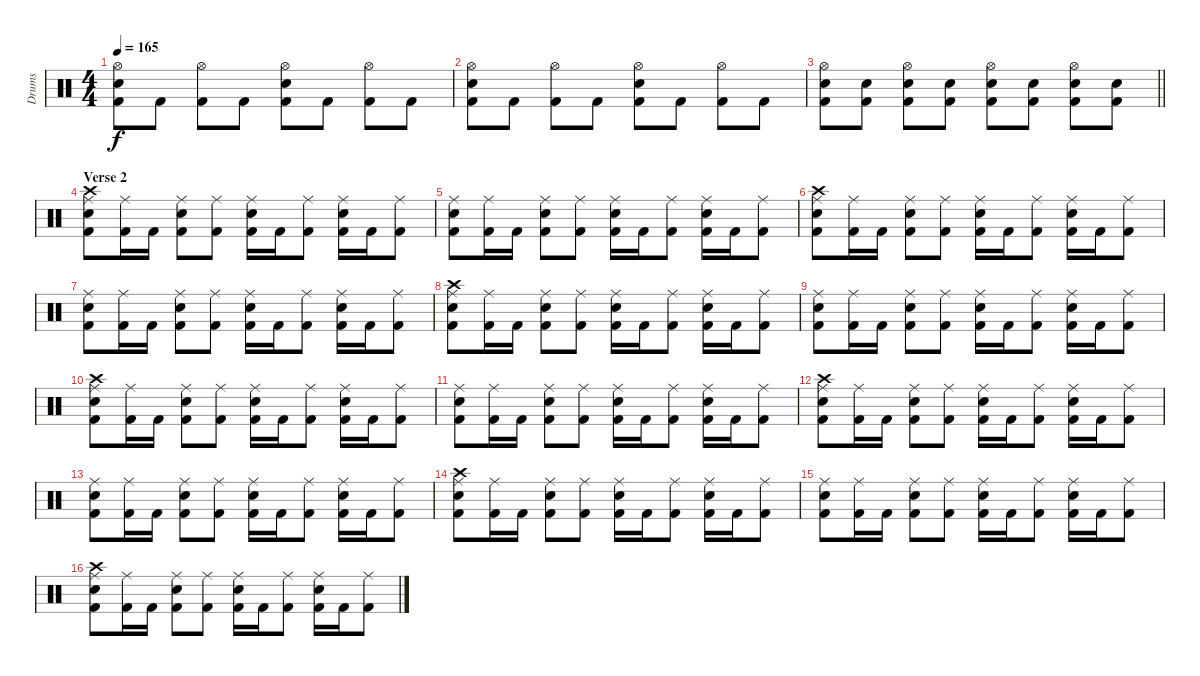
\track ("Drums" "Drums") {instrument percussion}
\staff {score}
\articulation defaults
\ts (4 4)
\tempo 165
\clef neutral
\ks c
("Hi-Hat (open)" "Snare (hit) 2" "Kick (hit) 2").8{dy f} "Kick (hit) 2".8 ("Hi-Hat (open)" "Kick (hit) 2").8 "Kick (hit) 2".8 ("Hi-Hat (open)" "Snare (hit) 2" "Kick (hit) 2").8 "Kick (hit) 2".8 ("Hi-Hat (open)" "Kick (hit) 2").8 "Kick (hit) 2".8 |
("Hi-Hat (open)" "Snare (hit) 2" "Kick (hit) 2").8 "Kick (hit) 2".8 ("Hi-Hat (open)" "Kick (hit) 2").8 "Kick (hit) 2".8 ("Hi-Hat (open)" "Snare (hit) 2" "Kick (hit) 2").8 "Kick (hit) 2".8 ("Hi-Hat (open)" "Kick (hit) 2").8 "Kick (hit) 2".8 |
\barLineRight lightlight
("Hi-Hat (open)" "Snare (hit) 2" "Kick (hit) 2").8 ("Snare (hit) 2" "Kick (hit) 2").8 ("Hi-Hat (open)" "Snare (hit) 2" "Kick (hit) 2").8 ("Snare (hit) 2" "Kick (hit) 2").8 ("Hi-Hat (open)" "Snare (hit) 2" "Kick (hit) 2").8 ("Snare (hit) 2" "Kick (hit) 2").8 ("Hi-Hat (open)" "Snare (hit) 2" "Kick (hit) 2").8 ("Snare (hit) 2" "Kick (hit) 2").8 |
\section ("" "Verse 2")
("Crash high (hit)" "Ride (middle)" "Snare (hit) 2" "Kick (hit) 2").8 ("Ride (middle)" "Kick (hit) 2").16 "Kick (hit) 2".16 ("Ride (middle)" "Snare (hit) 2" "Kick (hit) 2").8 ("Ride (middle)" "Kick (hit) 2").8 ("Ride (middle)" "Snare (hit) 2" "Kick (hit) 2").16 "Kick (hit) 2".16 ("Ride (middle)" "Kick (hit) 2").8 ("Ride (middle)" "Snare (hit) 2" "Kick (hit) 2").16 "Kick (hit) 2".16 ("Ride (middle)" "Kick (hit) 2").8 |
("Ride (middle)" "Snare (hit) 2" "Kick (hit) 2").8 ("Ride (middle)" "Kick (hit) 2").16 "Kick (hit) 2".16 ("Ride (middle)" "Snare (hit) 2" "Kick (hit) 2").8 ("Ride (middle)" "Kick (hit) 2").8 ("Ride (middle)" "Snare (hit) 2" "Kick (hit) 2").16 "Kick (hit) 2".16 ("Ride (middle)" "Kick (hit) 2").8 ("Ride (middle)" "Snare (hit) 2" "Kick (hit) 2").16 "Kick (hit) 2".16 ("Ride (middle)" "Kick (hit) 2").8 |
("Crash high (hit)" "Ride (middle)" "Snare (hit) 2" "Kick (hit) 2").8 ("Ride (middle)" "Kick (hit) 2").16 "Kick (hit) 2".16 ("Ride (middle)" "Snare (hit) 2" "Kick (hit) 2").8 ("Ride (middle)" "Kick (hit) 2").8 ("Ride (middle)" "Snare (hit) 2" "Kick (hit) 2").16 "Kick (hit) 2".16 ("Ride (middle)" "Kick (hit) 2").8 ("Ride (middle)" "Snare (hit) 2" "Kick (hit) 2").16 "Kick (hit) 2".16 ("Ride (middle)" "Kick (hit) 2").8 |
("Ride (middle)" "Snare (hit) 2" "Kick (hit) 2").8 ("Ride (middle)" "Kick (hit) 2").16 "Kick (hit) 2".16 ("Ride (middle)" "Snare (hit) 2" "Kick (hit) 2").8 ("Ride (middle)" "Kick (hit) 2").8 ("Ride (middle)" "Snare (hit) 2" "Kick (hit) 2").16 "Kick (hit) 2".16 ("Ride (middle)" "Kick (hit) 2").8 ("Ride (middle)" "Snare (hit) 2" "Kick (hit) 2").16 "Kick (hit) 2".16 ("Ride (middle)" "Kick (hit) 2").8 |
("Crash high (hit)" "Ride (middle)" "Snare (hit) 2" "Kick (hit) 2").8 ("Ride (middle)" "Kick (hit) 2").16 "Kick (hit) 2".16 ("Ride (middle)" "Snare (hit) 2" "Kick (hit) 2").8 ("Ride (middle)" "Kick (hit) 2").8 ("Ride (middle)" "Snare (hit) 2" "Kick (hit) 2").16 "Kick (hit) 2".16 ("Ride (middle)" "Kick (hit) 2").8 ("Ride (middle)" "Snare (hit) 2" "Kick (hit) 2").16 "Kick (hit) 2".16 ("Ride (middle)" "Kick (hit) 2").8 |
("Ride (middle)" "Snare (hit) 2" "Kick (hit) 2").8 ("Ride (middle)" "Kick (hit) 2").16 "Kick (hit) 2".16 ("Ride (middle)" "Snare (hit) 2" "Kick (hit) 2").8 ("Ride (middle)" "Kick (hit) 2").8 ("Ride (middle)" "Snare (hit) 2" "Kick (hit) 2").16 "Kick (hit) 2".16 ("Ride (middle)" "Kick (hit) 2").8 ("Ride (middle)" "Snare (hit) 2" "Kick (hit) 2").16 "Kick (hit) 2".16 ("Ride (middle)" "Kick (hit) 2").8 |
("Crash high (hit)" "Ride (middle)" "Snare (hit) 2" "Kick (hit) 2").8 ("Ride (middle)" "Kick (hit) 2").16 "Kick (hit) 2".16 ("Ride (middle)" "Snare (hit) 2" "Kick (hit) 2").8 ("Ride (middle)" "Kick (hit) 2").8 ("Ride (middle)" "Snare (hit) 2" "Kick (hit) 2").16 "Kick (hit) 2".16 ("Ride (middle)" "Kick (hit) 2").8 ("Ride (middle)" "Snare (hit) 2" "Kick (hit) 2").16 "Kick (hit) 2".16 ("Ride (middle)" "Kick (hit) 2").8 |
("Ride (middle)" "Snare (hit) 2" "Kick (hit) 2").8 ("Ride (middle)" "Kick (hit) 2").16 "Kick (hit) 2".16 ("Ride (middle)" "Snare (hit) 2" "Kick (hit) 2").8 ("Ride (middle)" "Kick (hit) 2").8 ("Ride (middle)" "Snare (hit) 2" "Kick (hit) 2").16 "Kick (hit) 2".16 ("Ride (middle)" "Kick (hit) 2").8 ("Ride (middle)" "Snare (hit) 2" "Kick (hit) 2").16 "Kick (hit) 2".16 ("Ride (middle)" "Kick (hit) 2").8 |
("Crash high (hit)" "Ride (middle)" "Snare (hit) 2" "Kick (hit) 2").8 ("Ride (middle)" "Kick (hit) 2").16 "Kick (hit) 2".16 ("Ride (middle)" "Snare (hit) 2" "Kick (hit) 2").8 ("Ride (middle)" "Kick (hit) 2").8 ("Ride (middle)" "Snare (hit) 2" "Kick (hit) 2").16 "Kick (hit) 2".16 ("Ride (middle)" "Kick (hit) 2").8 ("Ride (middle)" "Snare (hit) 2" "Kick (hit) 2").16 "Kick (hit) 2".16 ("Ride (middle)" "Kick (hit) 2").8 |
("Ride (middle)" "Snare (hit) 2" "Kick (hit) 2").8 ("Ride (middle)" "Kick (hit) 2").16 "Kick (hit) 2".16 ("Ride (middle)" "Snare (hit) 2" "Kick (hit) 2").8 ("Ride (middle)" "Kick (hit) 2").8 ("Ride (middle)" "Snare (hit) 2" "Kick (hit) 2").16 "Kick (hit) 2".16 ("Ride (middle)" "Kick (hit) 2").8 ("Ride (middle)" "Snare (hit) 2" "Kick (hit) 2").16 "Kick (hit) 2".16 ("Ride (middle)" "Kick (hit) 2").8 |
("Crash high (hit)" "Ride (middle)" "Snare (hit) 2" "Kick (hit) 2").8 ("Ride (middle)" "Kick (hit) 2").16 "Kick (hit) 2".16 ("Ride (middle)" "Snare (hit) 2" "Kick (hit) 2").8 ("Ride (middle)" "Kick (hit) 2").8 ("Ride (middle)" "Snare (hit) 2" "Kick (hit) 2").16 "Kick (hit) 2".16 ("Ride (middle)" "Kick (hit) 2").8 ("Ride (middle)" "Snare (hit) 2" "Kick (hit) 2").16 "Kick (hit) 2".16 ("Ride (middle)" "Kick (hit) 2").8 |
("Ride (middle)" "Snare (hit) 2" "Kick (hit) 2").8 ("Ride (middle)" "Kick (hit) 2").16 "Kick (hit) 2".16 ("Ride (middle)" "Snare (hit) 2" "Kick (hit) 2").8 ("Ride (middle)" "Kick (hit) 2").8 ("Ride (middle)" "Snare (hit) 2" "Kick (hit) 2").16 "Kick (hit) 2".16 ("Ride (middle)" "Kick (hit) 2").8 ("Ride (middle)" "Snare (hit) 2" "Kick (hit) 2").16 "Kick (hit) 2".16 ("Ride (middle)" "Kick (hit) 2").8 |
("Crash high (hit)" "Ride (middle)" "Snare (hit) 2" "Kick (hit) 2").8 ("Ride (middle)" "Kick (hit) 2").16 "Kick (hit) 2".16 ("Ride (middle)" "Snare (hit) 2" "Kick (hit) 2").8 ("Ride (middle)" "Kick (hit) 2").8 ("Ride (middle)" "Snare (hit) 2" "Kick (hit) 2").16 "Kick (hit) 2".16 ("Ride (middle)" "Kick (hit) 2").8 ("Ride (middle)" "Snare (hit) 2" "Kick (hit) 2").16 "Kick (hit) 2".16 ("Ride (middle)" "Kick (hit) 2").8
